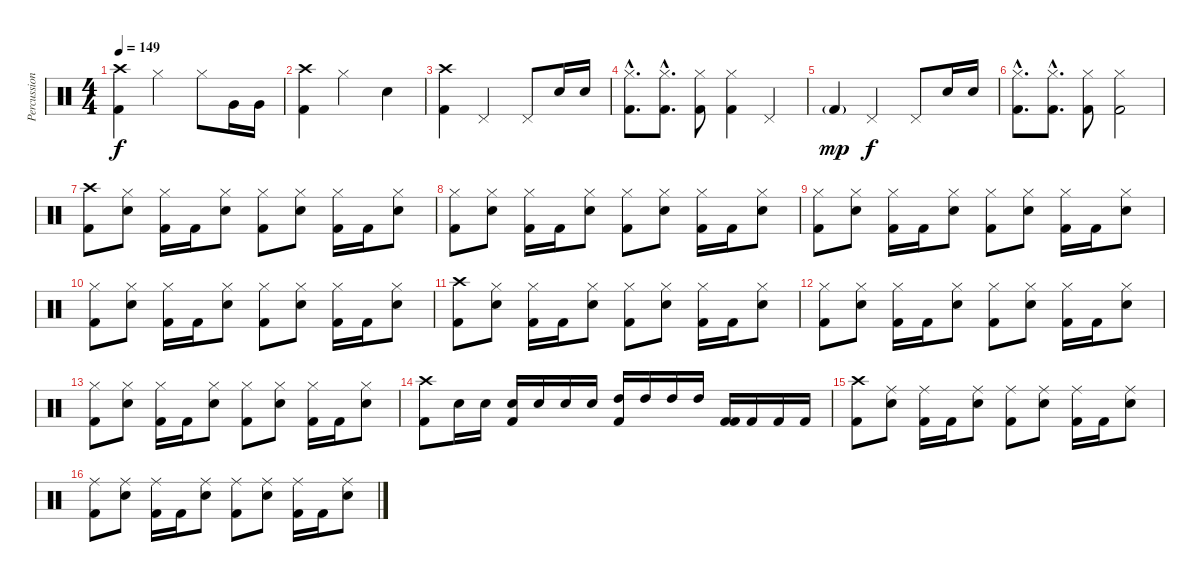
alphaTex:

\track ("Percussion" "Percussion") {instrument percussion}
\staff {score}
\articulation defaults
\ts (4 4)
\tempo 149
\clef neutral
\ks c
("Crash high (hit)" "Kick (hit) 2").4{dy f} "Hi-Hat (closed)".2 "Hi-Hat (closed)".8 "Very Low Tom (hit)".16 "Very Low Tom (hit)".16 |
("Crash high (hit)" "Kick (hit) 2").4 "Hi-Hat (closed)".2 "Snare (hit) 2".4 |
("Crash high (hit)" "Kick (hit) 2").4 "Pedal Hi-Hat (hit)".2 "Pedal Hi-Hat (hit)".8 "Snare (hit) 2".16 "Snare (hit) 2".16 |
("Hi-Hat (closed)"{hac} "Kick (hit) 2"{hac}).8{d} ("Hi-Hat (closed)"{hac} "Kick (hit) 2"{hac}).8{d} ("Hi-Hat (closed)" "Kick (hit) 2").8 ("Hi-Hat (closed)" "Kick (hit) 2").4 "Pedal Hi-Hat (hit)".4 |
"Kick (hit) 2"{g}.4{dy mp} "Pedal Hi-Hat (hit)".2{dy f} "Pedal Hi-Hat (hit)".8 "Snare (hit) 2".16 "Snare (hit) 2".16 |
("Hi-Hat (closed)"{hac} "Kick (hit) 2"{hac}).8{d} ("Hi-Hat (closed)"{hac} "Kick (hit) 2"{hac}).8{d} ("Hi-Hat (closed)" "Kick (hit) 2").8 ("Hi-Hat (closed)" "Kick (hit) 2").2 |
("Crash high (hit)" "Kick (hit) 2").8 ("Hi-Hat (closed)" "Snare (hit) 2").8 ("Hi-Hat (closed)" "Kick (hit) 2").16 "Kick (hit) 2".16 ("Hi-Hat (closed)" "Snare (hit) 2").8 ("Hi-Hat (closed)" "Kick (hit) 2").8 ("Hi-Hat (closed)" "Snare (hit) 2").8 ("Hi-Hat (closed)" "Kick (hit) 2").16 "Kick (hit) 2".16 ("Hi-Hat (closed)" "Snare (hit) 2").8 |
("Hi-Hat (closed)" "Kick (hit) 2").8 ("Hi-Hat (closed)" "Snare (hit) 2").8 ("Hi-Hat (closed)" "Kick (hit) 2").16 "Kick (hit) 2".16 ("Hi-Hat (closed)" "Snare (hit) 2").8 ("Hi-Hat (closed)" "Kick (hit) 2").8 ("Hi-Hat (closed)" "Snare (hit) 2").8 ("Hi-Hat (closed)" "Kick (hit) 2").16 "Kick (hit) 2".16 ("Hi-Hat (closed)" "Snare (hit) 2").8 |
("Hi-Hat (closed)" "Kick (hit) 2").8 ("Hi-Hat (closed)" "Snare (hit) 2").8 ("Hi-Hat (closed)" "Kick (hit) 2").16 "Kick (hit) 2".16 ("Hi-Hat (closed)" "Snare (hit) 2").8 ("Hi-Hat (closed)" "Kick (hit) 2").8 ("Hi-Hat (closed)" "Snare (hit) 2").8 ("Hi-Hat (closed)" "Kick (hit) 2").16 "Kick (hit) 2".16 ("Hi-Hat (closed)" "Snare (hit) 2").8 |
("Hi-Hat (closed)" "Kick (hit) 2").8 ("Hi-Hat (closed)" "Snare (hit) 2").8 ("Hi-Hat (closed)" "Kick (hit) 2").16 "Kick (hit) 2".16 ("Hi-Hat (closed)" "Snare (hit) 2").8 ("Hi-Hat (closed)" "Kick (hit) 2").8 ("Hi-Hat (closed)" "Snare (hit) 2").8 ("Hi-Hat (closed)" "Kick (hit) 2").16 "Kick (hit) 2".16 ("Hi-Hat (closed)" "Snare (hit) 2").8 |
("Crash high (hit)" "Kick (hit) 2").8 ("Hi-Hat (closed)" "Snare (hit) 2").8 ("Hi-Hat (closed)" "Kick (hit) 2").16 "Kick (hit) 2".16 ("Hi-Hat (closed)" "Snare (hit) 2").8 ("Hi-Hat (closed)" "Kick (hit) 2").8 ("Hi-Hat (closed)" "Snare (hit) 2").8 ("Hi-Hat (closed)" "Kick (hit) 2").16 "Kick (hit) 2".16 ("Hi-Hat (closed)" "Snare (hit) 2").8 |
("Hi-Hat (closed)" "Kick (hit) 2").8 ("Hi-Hat (closed)" "Snare (hit) 2").8 ("Hi-Hat (closed)" "Kick (hit) 2").16 "Kick (hit) 2".16 ("Hi-Hat (closed)" "Snare (hit) 2").8 ("Hi-Hat (closed)" "Kick (hit) 2").8 ("Hi-Hat (closed)" "Snare (hit) 2").8 ("Hi-Hat (closed)" "Kick (hit) 2").16 "Kick (hit) 2".16 ("Hi-Hat (closed)" "Snare (hit) 2").8 |
("Hi-Hat (closed)" "Kick (hit) 2").8 ("Hi-Hat (closed)" "Snare (hit) 2").8 ("Hi-Hat (closed)" "Kick (hit) 2").16 "Kick (hit) 2".16 ("Hi-Hat (closed)" "Snare (hit) 2").8 ("Hi-Hat (closed)" "Kick (hit) 2").8 ("Hi-Hat (closed)" "Snare (hit) 2").8 ("Hi-Hat (closed)" "Kick (hit) 2").16 "Kick (hit) 2".16 ("Hi-Hat (closed)" "Snare (hit) 2").8 |
("Crash high (hit)" "Kick (hit) 2").8 "Snare (hit) 2".16 "Snare (hit) 2".16 ("Snare (hit) 2" "Kick (hit) 2").16 "Snare (hit) 2".16 "Snare (hit) 2".16 "Snare (hit) 2".16 ("High Tom (hit)" "Kick (hit) 2").16 "High Tom (hit)".16 "High Tom (hit)".16 "High Tom (hit)".16 ("Kick (hit) 2" "Kick (hit) 2").16 "Kick (hit) 2".16 "Kick (hit) 2".16 "Kick (hit) 2".16 |
("Crash high (hit)" "Kick (hit) 2").8 ("Ride (middle)" "Snare (hit) 2").8 ("Ride (middle)" "Kick (hit) 2").16 "Kick (hit) 2".16 ("Ride (middle)" "Snare (hit) 2").8 ("Ride (middle)" "Kick (hit) 2").8 ("Ride (middle)" "Snare (hit) 2").8 ("Ride (middle)" "Kick (hit) 2").16 "Kick (hit) 2".16 ("Ride (middle)" "Snare (hit) 2").8 |
("Ride (middle)" "Kick (hit) 2").8 ("Ride (middle)" "Snare (hit) 2").8 ("Ride (middle)" "Kick (hit) 2").16 "Kick (hit) 2".16 ("Ride (middle)" "Snare (hit) 2").8 ("Ride (middle)" "Kick (hit) 2").8 ("Ride (middle)" "Snare (hit) 2").8 ("Ride (middle)" "Kick (hit) 2").16 "Kick (hit) 2".16 ("Ride (middle)" "Snare (hit) 2").8
